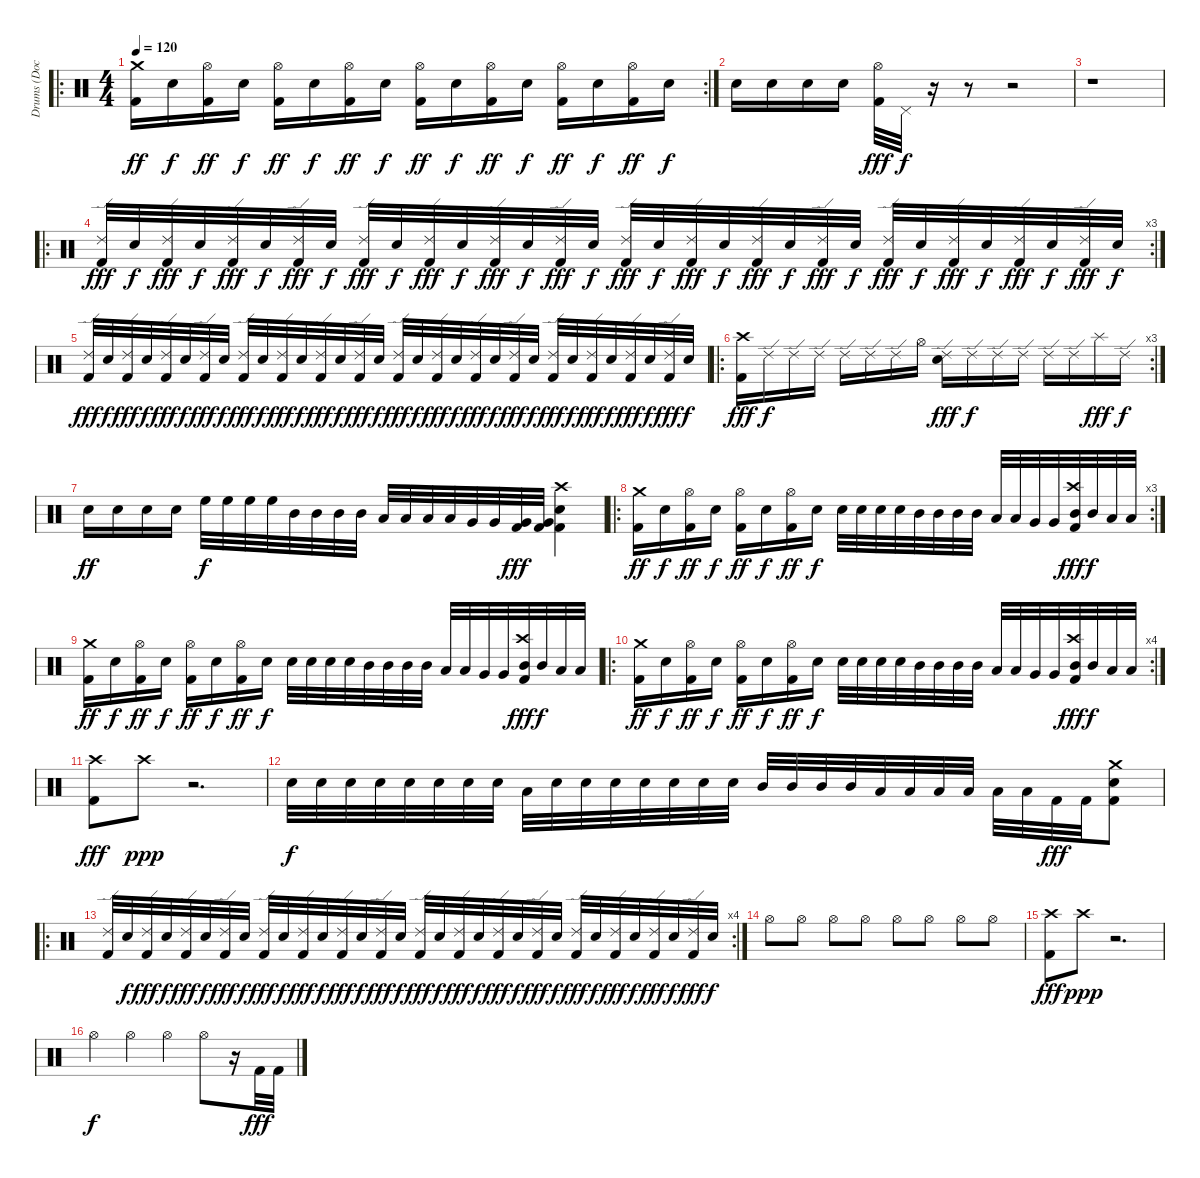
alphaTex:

\track ("Drums (Doc)" "Drums (Doc") {instrument percussion}
\staff {score}
\articulation defaults
\ro
\rc 2
\ts (4 4)
\tempo 120
\clef neutral
\ks c
("Crash medium (hit)" "Kick (hit) 2").16{dy ff} "Electric Snare (hit)".16{dy f} ("Hi-Hat (open)" "Kick (hit) 2").16{dy ff} "Electric Snare (hit)".16{dy f} ("Hi-Hat (open)" "Kick (hit) 2").16{dy ff} "Electric Snare (hit)".16{dy f} ("Hi-Hat (open)" "Kick (hit) 2").16{dy ff} "Electric Snare (hit)".16{dy f} ("Hi-Hat (open)" "Kick (hit) 2").16{dy ff} "Electric Snare (hit)".16{dy f} ("Hi-Hat (open)" "Kick (hit) 2").16{dy ff} "Electric Snare (hit)".16{dy f} ("Hi-Hat (open)" "Kick (hit) 2").16{dy ff} "Electric Snare (hit)".16{dy f} ("Hi-Hat (open)" "Kick (hit) 2").16{dy ff} "Electric Snare (hit)".16{dy f} |
"Electric Snare (hit)".16 "Electric Snare (hit)".16 "Electric Snare (hit)".16 "Electric Snare (hit)".16 ("Hi-Hat (open)" "Kick (hit) 2").32{dy fff} "Pedal Hi-Hat (hit)".32{dy f} r.16 r.8 r.2 |
r.1 |
\ro
\rc 3
("Ride (edge) 2" "Kick (hit) 2").32{dy fff} "Electric Snare (hit)".32{dy f} ("Ride (edge) 2" "Kick (hit) 2").32{dy fff} "Electric Snare (hit)".32{dy f} ("Ride (edge) 2" "Kick (hit) 2").32{dy fff} "Electric Snare (hit)".32{dy f} ("Ride (edge) 2" "Kick (hit) 2").32{dy fff} "Electric Snare (hit)".32{dy f} ("Ride (edge) 2" "Kick (hit) 2").32{dy fff} "Electric Snare (hit)".32{dy f} ("Ride (edge) 2" "Kick (hit) 2").32{dy fff} "Electric Snare (hit)".32{dy f} ("Ride (edge) 2" "Kick (hit) 2").32{dy fff} "Electric Snare (hit)".32{dy f} ("Ride (edge) 2" "Kick (hit) 2").32{dy fff} "Electric Snare (hit)".32{dy f} ("Ride (edge) 2" "Kick (hit) 2").32{dy fff} "Electric Snare (hit)".32{dy f} ("Ride (edge) 2" "Kick (hit) 2").32{dy fff} "Electric Snare (hit)".32{dy f} ("Ride (edge) 2" "Kick (hit) 2").32{dy fff} "Electric Snare (hit)".32{dy f} ("Ride (edge) 2" "Kick (hit) 2").32{dy fff} "Electric Snare (hit)".32{dy f} ("Ride (edge) 2" "Kick (hit) 2").32{dy fff} "Electric Snare (hit)".32{dy f} ("Ride (edge) 2" "Kick (hit) 2").32{dy fff} "Electric Snare (hit)".32{dy f} ("Ride (edge) 2" "Kick (hit) 2").32{dy fff} "Electric Snare (hit)".32{dy f} ("Ride (edge) 2" "Kick (hit) 2").32{dy fff} "Electric Snare (hit)".32{dy f} |
("Ride (edge) 2" "Kick (hit) 2").32{dy fff} "Electric Snare (hit)".32{dy f} ("Ride (edge) 2" "Kick (hit) 2").32{dy fff} "Electric Snare (hit)".32{dy f} ("Ride (edge) 2" "Kick (hit) 2").32{dy fff} "Electric Snare (hit)".32{dy f} ("Ride (edge) 2" "Kick (hit) 2").32{dy fff} "Electric Snare (hit)".32{dy f} ("Ride (edge) 2" "Kick (hit) 2").32{dy fff} "Electric Snare (hit)".32{dy f} ("Ride (edge) 2" "Kick (hit) 2").32{dy fff} "Electric Snare (hit)".32{dy f} ("Ride (edge) 2" "Kick (hit) 2").32{dy fff} "Electric Snare (hit)".32{dy f} ("Ride (edge) 2" "Kick (hit) 2").32{dy fff} "Electric Snare (hit)".32{dy f} ("Ride (edge) 2" "Kick (hit) 2").32{dy fff} "Electric Snare (hit)".32{dy f} ("Ride (edge) 2" "Kick (hit) 2").32{dy fff} "Electric Snare (hit)".32{dy f} ("Ride (edge) 2" "Kick (hit) 2").32{dy fff} "Electric Snare (hit)".32{dy f} ("Ride (edge) 2" "Kick (hit) 2").32{dy fff} "Electric Snare (hit)".32{dy f} ("Ride (edge) 2" "Kick (hit) 2").32{dy fff} "Electric Snare (hit)".32{dy f} ("Ride (edge) 2" "Kick (hit) 2").32{dy fff} "Electric Snare (hit)".32{dy f} ("Ride (edge) 2" "Kick (hit) 2").32{dy fff} "Electric Snare (hit)".32{dy f} ("Ride (edge) 2" "Kick (hit) 2").32{dy fff} "Electric Snare (hit)".32{dy f} |
\ro
\rc 3
("Crash high (hit)" "Kick (hit) 2").16{dy fff} "Ride (edge) 2".16{dy f} "Ride (edge) 2".16 "Ride (edge) 2".16 "Ride (edge) 2".16 "Ride (edge) 2".16 "Ride (edge) 2".16 "Hi-Hat (open)".16 ("Ride (edge) 2" "Electric Snare (hit)").16{dy fff} "Ride (edge) 2".16{dy f} "Ride (edge) 2".16 "Ride (edge) 2".16 "Ride (edge) 2".16 "Ride (edge) 2".16 "Splash (hit)".16{dy fff} "Ride (edge) 2".16{dy f} |
"Electric Snare (hit)".16{dy ff} "Electric Snare (hit)".16 "Electric Snare (hit)".16 "Electric Snare (hit)".16 "High Floor Tom (hit)".32{dy f} "High Floor Tom (hit)".32 "High Floor Tom (hit)".32 "High Floor Tom (hit)".32 "Mid Tom (hit)".32 "Mid Tom (hit)".32 "Mid Tom (hit)".32 "Mid Tom (hit)".32 "Low Tom (hit)".32 "Low Tom (hit)".32 "Low Tom (hit)".32 "Low Tom (hit)".32 "Very Low Tom (hit)".32 "Very Low Tom (hit)".32 ("Very Low Tom (hit)" "Kick (hit) 2").32{dy fff} ("Very Low Tom (hit)" "Kick (hit) 2").32 ("Crash high (hit)" "Electric Snare (hit)" "Kick (hit) 2").4 |
\ro
\rc 3
("Crash medium (hit)" "Kick (hit) 2").16{dy ff} "Electric Snare (hit)".16{dy f} ("Hi-Hat (open)" "Kick (hit) 2").16{dy ff} "Electric Snare (hit)".16{dy f} ("Hi-Hat (open)" "Kick (hit) 2").16{dy ff} "Electric Snare (hit)".16{dy f} ("Hi-Hat (open)" "Kick (hit) 2").16{dy ff} "Electric Snare (hit)".16{dy f} "Electric Snare (hit)".32 "Electric Snare (hit)".32 "Electric Snare (hit)".32 "Electric Snare (hit)".32 "Mid Tom (hit)".32 "Mid Tom (hit)".32 "Mid Tom (hit)".32 "Mid Tom (hit)".32 "Low Tom (hit)".32 "Low Tom (hit)".32 "Very Low Tom (hit)".32 "Very Low Tom (hit)".32 ("Crash high (hit)" "Mid Tom (hit)" "Kick (hit) 2").32{dy fff} "Mid Tom (hit)".32{dy f} "Low Tom (hit)".32 "Low Tom (hit)".32 |
("Crash medium (hit)" "Kick (hit) 2").16{dy ff} "Electric Snare (hit)".16{dy f} ("Hi-Hat (open)" "Kick (hit) 2").16{dy ff} "Electric Snare (hit)".16{dy f} ("Hi-Hat (open)" "Kick (hit) 2").16{dy ff} "Electric Snare (hit)".16{dy f} ("Hi-Hat (open)" "Kick (hit) 2").16{dy ff} "Electric Snare (hit)".16{dy f} "Electric Snare (hit)".32 "Electric Snare (hit)".32 "Electric Snare (hit)".32 "Electric Snare (hit)".32 "Mid Tom (hit)".32 "Mid Tom (hit)".32 "Mid Tom (hit)".32 "Mid Tom (hit)".32 "Low Tom (hit)".32 "Low Tom (hit)".32 "Very Low Tom (hit)".32 "Very Low Tom (hit)".32 ("Crash high (hit)" "Mid Tom (hit)" "Kick (hit) 2").32{dy fff} "Mid Tom (hit)".32{dy f} "Low Tom (hit)".32 "Low Tom (hit)".32 |
\ro
\rc 4
("Crash medium (hit)" "Kick (hit) 2").16{dy ff} "Electric Snare (hit)".16{dy f} ("Hi-Hat (open)" "Kick (hit) 2").16{dy ff} "Electric Snare (hit)".16{dy f} ("Hi-Hat (open)" "Kick (hit) 2").16{dy ff} "Electric Snare (hit)".16{dy f} ("Hi-Hat (open)" "Kick (hit) 2").16{dy ff} "Electric Snare (hit)".16{dy f} "Electric Snare (hit)".32 "Electric Snare (hit)".32 "Electric Snare (hit)".32 "Electric Snare (hit)".32 "Mid Tom (hit)".32 "Mid Tom (hit)".32 "Mid Tom (hit)".32 "Mid Tom (hit)".32 "Low Tom (hit)".32 "Low Tom (hit)".32 "Very Low Tom (hit)".32 "Very Low Tom (hit)".32 ("Crash high (hit)" "Mid Tom (hit)" "Kick (hit) 2").32{dy fff} "Mid Tom (hit)".32{dy f} "Low Tom (hit)".32 "Low Tom (hit)".32 |
("Crash high (hit)" "Kick (hit) 2").8{dy fff} "Crash high (hit)".8{dy ppp} r.2{d} |
"Electric Snare (hit)".32{dy f} "Electric Snare (hit)".32 "Electric Snare (hit)".32 "Electric Snare (hit)".32 "Electric Snare (hit)".32 "Electric Snare (hit)".32 "Electric Snare (hit)".32 "Electric Snare (hit)".32 "Low Tom (hit)".32 "Electric Snare (hit)".32 "Electric Snare (hit)".32 "Electric Snare (hit)".32 "Electric Snare (hit)".32 "Electric Snare (hit)".32 "Electric Snare (hit)".32 "Electric Snare (hit)".32 "Mid Tom (hit)".32 "Mid Tom (hit)".32 "Mid Tom (hit)".32 "Mid Tom (hit)".32 "Low Tom (hit)".32 "Low Tom (hit)".32 "Low Tom (hit)".32 "Low Tom (hit)".32 "Low Tom (hit)".32 "Low Tom (hit)".32 "Kick (hit) 2".32{dy fff} "Kick (hit) 2".32 ("Crash medium (hit)" "Electric Snare (hit)" "Kick (hit) 2").8 |
\ro
\rc 4
("Ride (edge) 2" "Kick (hit) 2").32 "Electric Snare (hit)".32{dy f} ("Ride (edge) 2" "Kick (hit) 2").32{dy fff} "Electric Snare (hit)".32{dy f} ("Ride (edge) 2" "Kick (hit) 2").32{dy fff} "Electric Snare (hit)".32{dy f} ("Ride (edge) 2" "Kick (hit) 2").32{dy fff} "Electric Snare (hit)".32{dy f} ("Ride (edge) 2" "Kick (hit) 2").32{dy fff} "Electric Snare (hit)".32{dy f} ("Ride (edge) 2" "Kick (hit) 2").32{dy fff} "Electric Snare (hit)".32{dy f} ("Ride (edge) 2" "Kick (hit) 2").32{dy fff} "Electric Snare (hit)".32{dy f} ("Ride (edge) 2" "Kick (hit) 2").32{dy fff} "Electric Snare (hit)".32{dy f} ("Ride (edge) 2" "Kick (hit) 2").32{dy fff} "Electric Snare (hit)".32{dy f} ("Ride (edge) 2" "Kick (hit) 2").32{dy fff} "Electric Snare (hit)".32{dy f} ("Ride (edge) 2" "Kick (hit) 2").32{dy fff} "Electric Snare (hit)".32{dy f} ("Ride (edge) 2" "Kick (hit) 2").32{dy fff} "Electric Snare (hit)".32{dy f} ("Ride (edge) 2" "Kick (hit) 2").32{dy fff} "Electric Snare (hit)".32{dy f} ("Ride (edge) 2" "Kick (hit) 2").32{dy fff} "Electric Snare (hit)".32{dy f} ("Ride (edge) 2" "Kick (hit) 2").32{dy fff} "Electric Snare (hit)".32{dy f} ("Ride (edge) 2" "Kick (hit) 2").32{dy fff} "Electric Snare (hit)".32{dy f} |
"Hi-Hat (open)".8 "Hi-Hat (open)".8 "Hi-Hat (open)".8 "Hi-Hat (open)".8 "Hi-Hat (open)".8 "Hi-Hat (open)".8 "Hi-Hat (open)".8 "Hi-Hat (open)".8 |
("Crash high (hit)" "Kick (hit) 2").8{dy fff} "Crash high (hit)".8{dy ppp} r.2{d} |
"Hi-Hat (open)".4{dy f} "Hi-Hat (open)".4 "Hi-Hat (open)".4 "Hi-Hat (open)".8 r.16 "Kick (hit) 2".32{dy fff} "Kick (hit) 2".32
